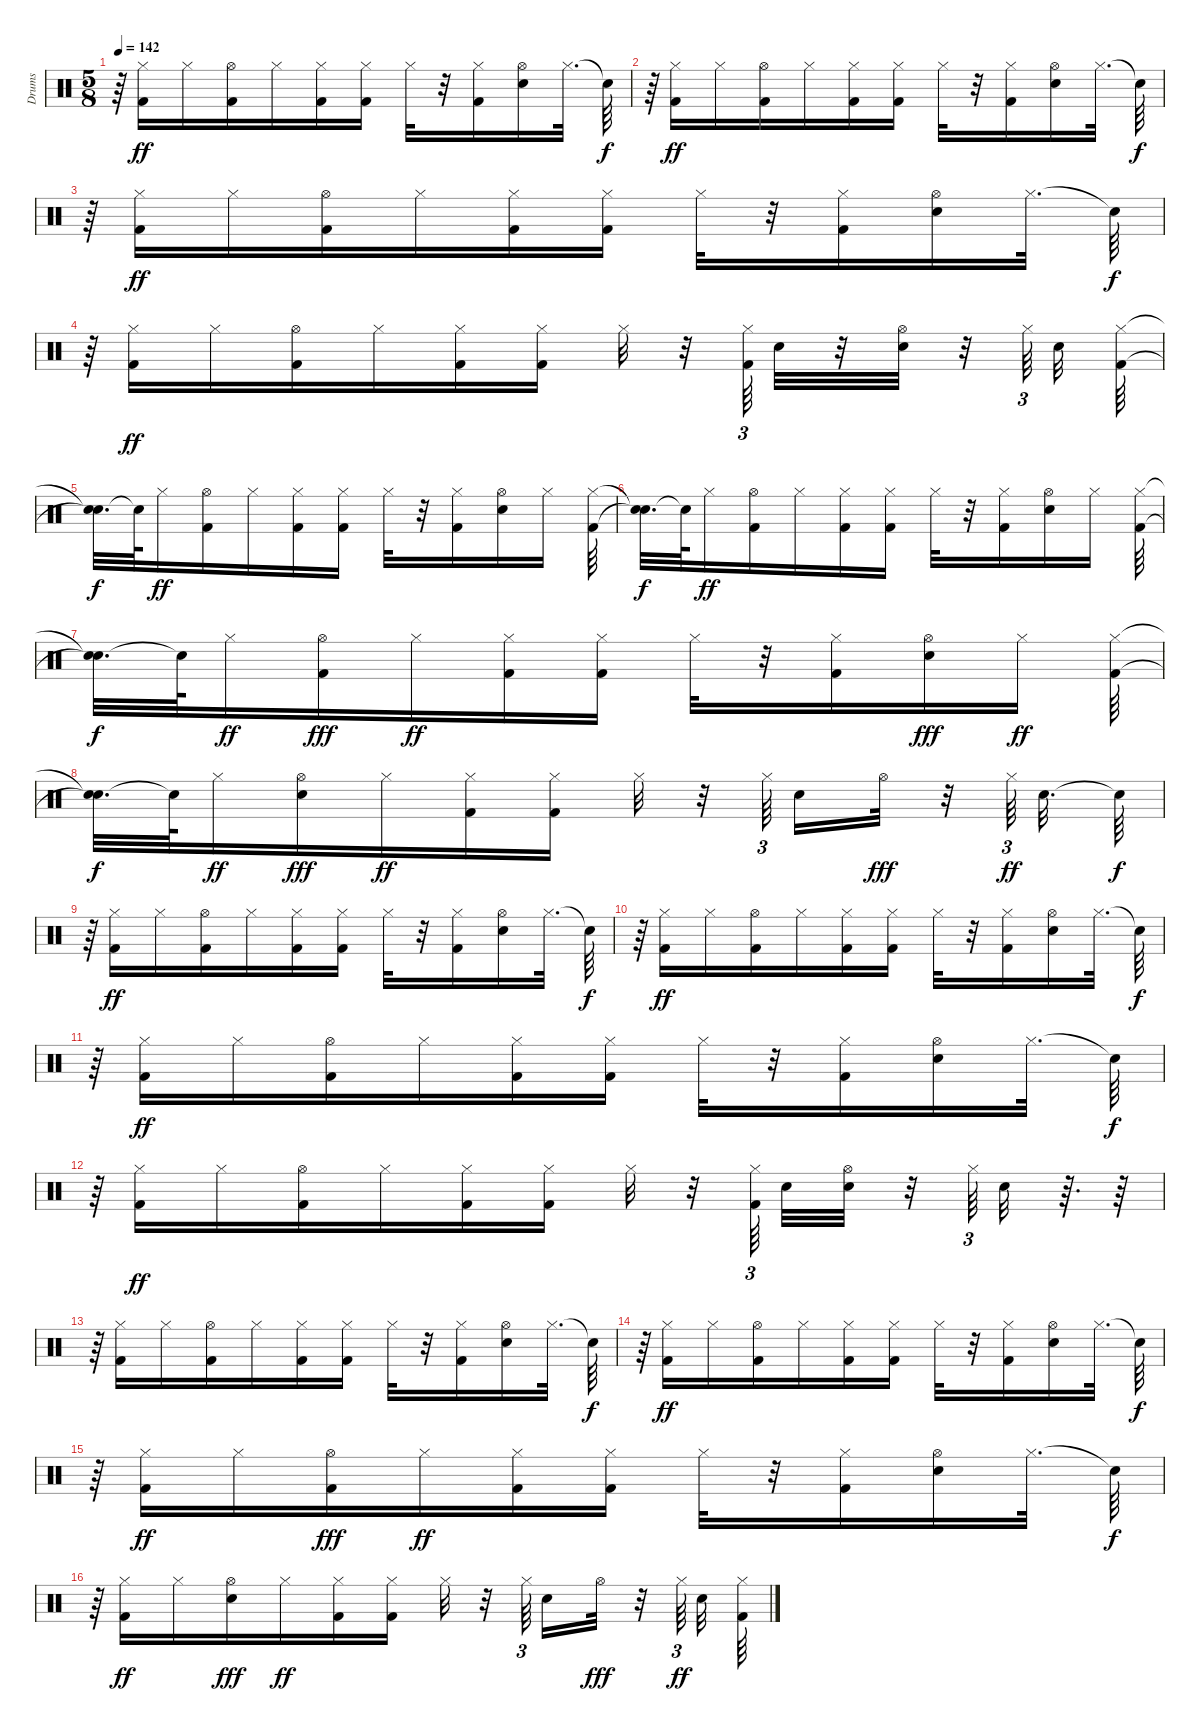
\track ("Drums                               " "Drums     ") {instrument percussion}
\staff {score}
\articulation defaults
\ts (5 8)
\tempo 142
\clef neutral
\ks c
r.64{dy f} ("Hi-Hat (closed)" "Kick (hit) 2").16{dy ff} "Hi-Hat (closed)".16 ("Hi-Hat (open)" "Kick (hit) 2").16 "Hi-Hat (closed)".16 ("Hi-Hat (closed)" "Kick (hit) 2").16 ("Kick (hit) 2" "Hi-Hat (closed)").16 "Hi-Hat (closed)".32 r.32 ("Kick (hit) 2" "Hi-Hat (closed)").16 ("Hi-Hat (open)" "Snare (hit) 2").16 "Hi-Hat (closed)".32{d} "Snare (hit)"{t}.64{dy f} |
r.64 ("Hi-Hat (closed)" "Kick (hit) 2").16{dy ff} "Hi-Hat (closed)".16 ("Kick (hit) 2" "Hi-Hat (open)").16 "Hi-Hat (closed)".16 ("Hi-Hat (closed)" "Kick (hit) 2").16 ("Kick (hit) 2" "Hi-Hat (closed)").16 "Hi-Hat (closed)".32 r.32 ("Kick (hit) 2" "Hi-Hat (closed)").16 ("Hi-Hat (open)" "Snare (hit) 2").16 "Hi-Hat (closed)".32{d} "Snare (hit)"{t}.64{dy f} |
r.64 ("Kick (hit) 2" "Hi-Hat (closed)").16{dy ff} "Hi-Hat (closed)".16 ("Hi-Hat (open)" "Kick (hit) 2").16 "Hi-Hat (closed)".16 ("Kick (hit) 2" "Hi-Hat (closed)").16 ("Kick (hit) 2" "Hi-Hat (closed)").16 "Hi-Hat (closed)".32 r.32 ("Kick (hit) 2" "Hi-Hat (closed)").16 ("Snare (hit) 2" "Hi-Hat (open)").16 "Hi-Hat (closed)".32{d} "Snare (hit)"{t}.64{dy f} |
r.64 ("Kick (hit) 2" "Hi-Hat (closed)").16{dy ff} "Hi-Hat (closed)".16 ("Kick (hit) 2" "Hi-Hat (open)").16 "Hi-Hat (closed)".16 ("Kick (hit) 2" "Hi-Hat (closed)").16 ("Kick (hit) 2" "Hi-Hat (closed)").16 "Hi-Hat (closed)".32 r.32 ("Kick (hit) 2" "Hi-Hat (closed)").64{tu (3 2)} "Snare (hit) 2".32 r.32 ("Snare (hit) 2" "Hi-Hat (open)").32 r.32 "Hi-Hat (closed)".64{tu (3 2)} "Snare (hit) 2".32 ("Hi-Hat (closed)" "Kick (hit) 2").64 |
("Snare (hit)"{t} "Snare (hit)"{t}).32{d dy f} "Snare (hit)"{t}.64 "Hi-Hat (closed)".16{dy ff} ("Kick (hit) 2" "Hi-Hat (open)").16 "Hi-Hat (closed)".16 ("Kick (hit) 2" "Hi-Hat (closed)").16 ("Kick (hit) 2" "Hi-Hat (closed)").16 "Hi-Hat (closed)".32 r.32 ("Kick (hit) 2" "Hi-Hat (closed)").16 ("Hi-Hat (open)" "Snare (hit) 2").16 "Hi-Hat (closed)".16 ("Kick (hit) 2" "Hi-Hat (closed)").64 |
("Snare (hit)"{t} "Snare (hit)"{t}).32{d dy f} "Snare (hit)"{t}.64 "Hi-Hat (closed)".16{dy ff} ("Kick (hit) 2" "Hi-Hat (open)").16 "Hi-Hat (closed)".16 ("Kick (hit) 2" "Hi-Hat (closed)").16 ("Kick (hit) 2" "Hi-Hat (closed)").16 "Hi-Hat (closed)".32 r.32 ("Kick (hit) 2" "Hi-Hat (closed)").16 ("Hi-Hat (open)" "Snare (hit) 2").16 "Hi-Hat (closed)".16 ("Kick (hit) 2" "Hi-Hat (closed)").64 |
("Snare (hit)"{t} "Snare (hit)"{t}).32{d dy f} "Snare (hit)"{t}.64 "Hi-Hat (closed)".16{dy ff} ("Kick (hit) 2" "Hi-Hat (open)").16{dy fff} "Hi-Hat (closed)".16{dy ff} ("Hi-Hat (closed)" "Kick (hit) 2").16 ("Kick (hit) 2" "Hi-Hat (closed)").16 "Hi-Hat (closed)".32 r.32 ("Kick (hit) 2" "Hi-Hat (closed)").16 ("Snare (hit) 2" "Hi-Hat (open)").16{dy fff} "Hi-Hat (closed)".16{dy ff} ("Kick (hit) 2" "Hi-Hat (closed)").64 |
("Snare (hit)"{t} "Snare (hit)"{t}).32{d dy f} "Snare (hit)"{t}.64 "Hi-Hat (closed)".16{dy ff} ("Snare (hit) 2" "Hi-Hat (open)").16{dy fff} "Hi-Hat (closed)".16{dy ff} ("Hi-Hat (closed)" "Kick (hit) 2").16 ("Kick (hit) 2" "Hi-Hat (closed)").16 "Hi-Hat (closed)".32 r.32 "Hi-Hat (closed)".64{tu (3 2)} "Snare (hit) 2".16 "Hi-Hat (open)".32{dy fff} r.32 "Hi-Hat (closed)".64{tu (3 2) dy ff} "Snare (hit) 2".32{d} "Snare (hit)"{t}.64{dy f} |
r.64 ("Kick (hit) 2" "Hi-Hat (closed)").16{dy ff} "Hi-Hat (closed)".16 ("Kick (hit) 2" "Hi-Hat (open)").16 "Hi-Hat (closed)".16 ("Hi-Hat (closed)" "Kick (hit) 2").16 ("Kick (hit) 2" "Hi-Hat (closed)").16 "Hi-Hat (closed)".32 r.32 ("Kick (hit) 2" "Hi-Hat (closed)").16 ("Snare (hit) 2" "Hi-Hat (open)").16 "Hi-Hat (closed)".32{d} "Snare (hit)"{t}.64{dy f} |
r.64 ("Hi-Hat (closed)" "Kick (hit) 2").16{dy ff} "Hi-Hat (closed)".16 ("Hi-Hat (open)" "Kick (hit) 2").16 "Hi-Hat (closed)".16 ("Hi-Hat (closed)" "Kick (hit) 2").16 ("Kick (hit) 2" "Hi-Hat (closed)").16 "Hi-Hat (closed)".32 r.32 ("Kick (hit) 2" "Hi-Hat (closed)").16 ("Hi-Hat (open)" "Snare (hit) 2").16 "Hi-Hat (closed)".32{d} "Snare (hit)"{t}.64{dy f} |
r.64 ("Hi-Hat (closed)" "Kick (hit) 2").16{dy ff} "Hi-Hat (closed)".16 ("Hi-Hat (open)" "Kick (hit) 2").16 "Hi-Hat (closed)".16 ("Kick (hit) 2" "Hi-Hat (closed)").16 ("Kick (hit) 2" "Hi-Hat (closed)").16 "Hi-Hat (closed)".32 r.32 ("Kick (hit) 2" "Hi-Hat (closed)").16 ("Hi-Hat (open)" "Snare (hit) 2").16 "Hi-Hat (closed)".32{d} "Snare (hit)"{t}.64{dy f} |
r.64 ("Kick (hit) 2" "Hi-Hat (closed)").16{dy ff} "Hi-Hat (closed)".16 ("Hi-Hat (open)" "Kick (hit) 2").16 "Hi-Hat (closed)".16 ("Kick (hit) 2" "Hi-Hat (closed)").16 ("Kick (hit) 2" "Hi-Hat (closed)").16 "Hi-Hat (closed)".32 r.32 ("Kick (hit) 2" "Hi-Hat (closed)").64{tu (3 2)} "Snare (hit) 2".32 ("Hi-Hat (open)" "Snare (hit) 2").32 r.32 "Hi-Hat (closed)".64{tu (3 2)} "Snare (hit) 2".32 r.64{d} r.64 |
r.64 ("Kick (hit) 2" "Hi-Hat (closed)").16 "Hi-Hat (closed)".16 ("Hi-Hat (open)" "Kick (hit) 2").16 "Hi-Hat (closed)".16 ("Hi-Hat (closed)" "Kick (hit) 2").16 ("Kick (hit) 2" "Hi-Hat (closed)").16 "Hi-Hat (closed)".32 r.32 ("Kick (hit) 2" "Hi-Hat (closed)").16 ("Snare (hit) 2" "Hi-Hat (open)").16 "Hi-Hat (closed)".32{d} "Snare (hit)"{t}.64{dy f} |
r.64 ("Hi-Hat (closed)" "Kick (hit) 2").16{dy ff} "Hi-Hat (closed)".16 ("Hi-Hat (open)" "Kick (hit) 2").16 "Hi-Hat (closed)".16 ("Kick (hit) 2" "Hi-Hat (closed)").16 ("Kick (hit) 2" "Hi-Hat (closed)").16 "Hi-Hat (closed)".32 r.32 ("Kick (hit) 2" "Hi-Hat (closed)").16 ("Hi-Hat (open)" "Snare (hit) 2").16 "Hi-Hat (closed)".32{d} "Snare (hit)"{t}.64{dy f} |
r.64 ("Hi-Hat (closed)" "Kick (hit) 2").16{dy ff} "Hi-Hat (closed)".16 ("Kick (hit) 2" "Hi-Hat (open)").16{dy fff} "Hi-Hat (closed)".16{dy ff} ("Hi-Hat (closed)" "Kick (hit) 2").16 ("Kick (hit) 2" "Hi-Hat (closed)").16 "Hi-Hat (closed)".32 r.32 ("Kick (hit) 2" "Hi-Hat (closed)").16 ("Hi-Hat (open)" "Snare (hit) 2").16 "Hi-Hat (closed)".32{d} "Snare (hit)"{t}.64{dy f} |
r.64 ("Kick (hit) 2" "Hi-Hat (closed)").16{dy ff} "Hi-Hat (closed)".16 ("Snare (hit) 2" "Hi-Hat (open)").16{dy fff} "Hi-Hat (closed)".16{dy ff} ("Hi-Hat (closed)" "Kick (hit) 2").16 ("Kick (hit) 2" "Hi-Hat (closed)").16 "Hi-Hat (closed)".32 r.32 "Hi-Hat (closed)".64{tu (3 2)} "Snare (hit) 2".16 "Hi-Hat (open)".32{dy fff} r.32 "Hi-Hat (closed)".64{tu (3 2) dy ff} "Snare (hit) 2".32 ("Kick (hit) 2" "Hi-Hat (closed)").64
